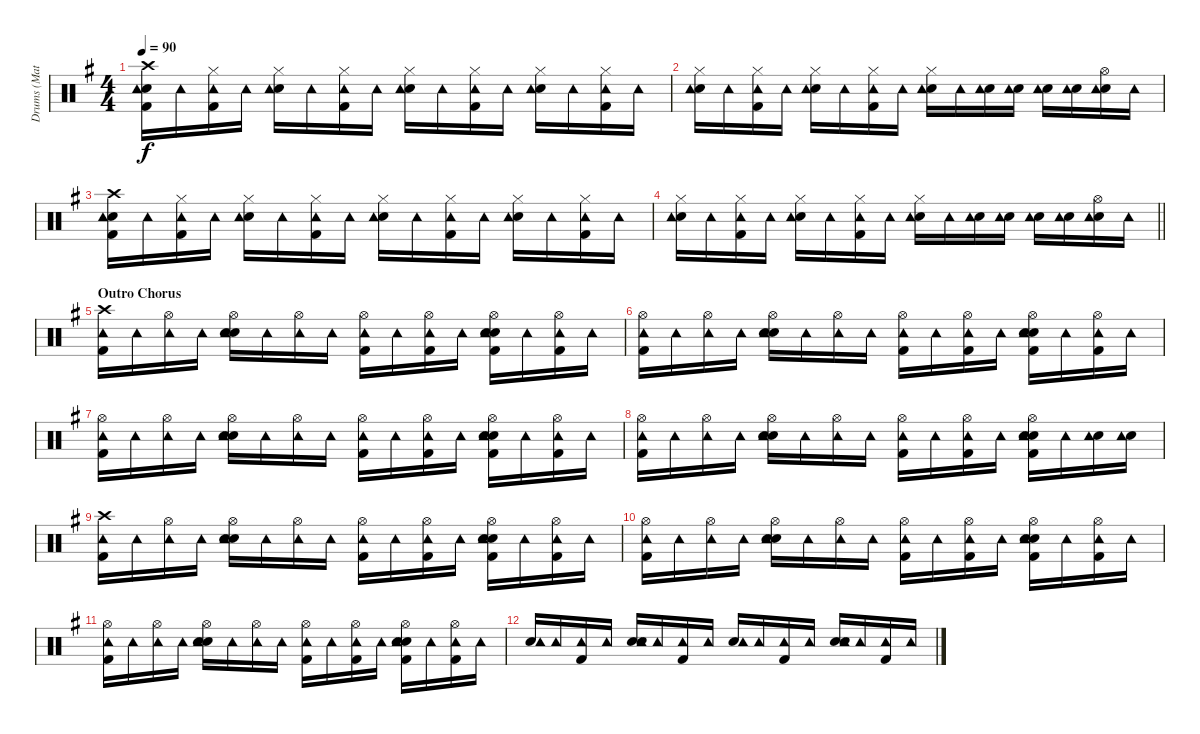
\track ("Drums (Matt)" "Drums (Mat") {instrument percussion}
\staff {score}
\articulation defaults
\ts (4 4)
\tempo 90
\clef neutral
\ks g
("Crash high (hit)" "Snare (hit) 2" "Kick (hit) 2" "Tambourine (hit)").16{dy f} "Tambourine (hit)".16 ("Hi-Hat (closed)" "Kick (hit) 2" "Tambourine (hit)").16 "Tambourine (hit)".16 ("Hi-Hat (closed)" "Snare (hit) 2" "Tambourine (hit)").16 "Tambourine (hit)".16 ("Hi-Hat (closed)" "Kick (hit) 2" "Tambourine (hit)").16 "Tambourine (hit)".16 ("Hi-Hat (closed)" "Snare (hit) 2" "Tambourine (hit)").16 "Tambourine (hit)".16 ("Hi-Hat (closed)" "Kick (hit) 2" "Tambourine (hit)").16 "Tambourine (hit)".16 ("Hi-Hat (closed)" "Snare (hit) 2" "Tambourine (hit)").16 "Tambourine (hit)".16 ("Hi-Hat (closed)" "Kick (hit) 2" "Tambourine (hit)").16 "Tambourine (hit)".16 |
("Hi-Hat (closed)" "Snare (hit) 2" "Tambourine (hit)").16 "Tambourine (hit)".16 ("Hi-Hat (closed)" "Kick (hit) 2" "Tambourine (hit)").16 "Tambourine (hit)".16 ("Hi-Hat (closed)" "Snare (hit) 2" "Tambourine (hit)").16 "Tambourine (hit)".16 ("Hi-Hat (closed)" "Kick (hit) 2" "Tambourine (hit)").16 "Tambourine (hit)".16 ("Hi-Hat (closed)" "Snare (hit) 2" "Tambourine (hit)").16 "Tambourine (hit)".16 ("Snare (hit) 2" "Tambourine (hit)").16 ("Snare (hit) 2" "Tambourine (hit)").16 ("Snare (hit) 2" "Tambourine (hit)").16 ("Snare (hit) 2" "Tambourine (hit)").16 ("Hi-Hat (open)" "Snare (hit) 2" "Tambourine (hit)").16 "Tambourine (hit)".16 |
("Crash high (hit)" "Snare (hit) 2" "Kick (hit) 2" "Tambourine (hit)").16 "Tambourine (hit)".16 ("Hi-Hat (closed)" "Kick (hit) 2" "Tambourine (hit)").16 "Tambourine (hit)".16 ("Hi-Hat (closed)" "Snare (hit) 2" "Tambourine (hit)").16 "Tambourine (hit)".16 ("Hi-Hat (closed)" "Kick (hit) 2" "Tambourine (hit)").16 "Tambourine (hit)".16 ("Hi-Hat (closed)" "Snare (hit) 2" "Tambourine (hit)").16 "Tambourine (hit)".16 ("Hi-Hat (closed)" "Kick (hit) 2" "Tambourine (hit)").16 "Tambourine (hit)".16 ("Hi-Hat (closed)" "Snare (hit) 2" "Tambourine (hit)").16 "Tambourine (hit)".16 ("Hi-Hat (closed)" "Kick (hit) 2" "Tambourine (hit)").16 "Tambourine (hit)".16 |
\barLineRight lightlight
("Hi-Hat (closed)" "Snare (hit) 2" "Tambourine (hit)").16 "Tambourine (hit)".16 ("Hi-Hat (closed)" "Kick (hit) 2" "Tambourine (hit)").16 "Tambourine (hit)".16 ("Hi-Hat (closed)" "Snare (hit) 2" "Tambourine (hit)").16 "Tambourine (hit)".16 ("Hi-Hat (closed)" "Kick (hit) 2" "Tambourine (hit)").16 "Tambourine (hit)".16 ("Hi-Hat (closed)" "Snare (hit) 2" "Tambourine (hit)").16 "Tambourine (hit)".16 ("Snare (hit) 2" "Tambourine (hit)").16 ("Snare (hit) 2" "Tambourine (hit)").16 ("Snare (hit) 2" "Tambourine (hit)").16 ("Snare (hit) 2" "Tambourine (hit)").16 ("Hi-Hat (open)" "Snare (hit) 2" "Tambourine (hit)").16 "Tambourine (hit)".16 |
\section ("" "Outro Chorus")
("Crash high (hit)" "Kick (hit) 2" "Tambourine (hit)").16 "Tambourine (hit)".16 ("Hi-Hat (open)" "Tambourine (hit)").16 "Tambourine (hit)".16 ("Hi-Hat (open)" "Snare (hit) 2" "Tambourine (hit)" "Hand Clap (hit)").16 "Tambourine (hit)".16 ("Hi-Hat (open)" "Tambourine (hit)").16 "Tambourine (hit)".16 ("Hi-Hat (open)" "Kick (hit) 2" "Tambourine (hit)").16 "Tambourine (hit)".16 ("Hi-Hat (open)" "Kick (hit) 2" "Tambourine (hit)").16 "Tambourine (hit)".16 ("Hi-Hat (open)" "Snare (hit) 2" "Kick (hit) 2" "Tambourine (hit)" "Hand Clap (hit)").16 "Tambourine (hit)".16 ("Hi-Hat (open)" "Kick (hit) 2" "Tambourine (hit)").16 "Tambourine (hit)".16 |
("Hi-Hat (open)" "Kick (hit) 2" "Tambourine (hit)").16 "Tambourine (hit)".16 ("Hi-Hat (open)" "Tambourine (hit)").16 "Tambourine (hit)".16 ("Hi-Hat (open)" "Snare (hit) 2" "Tambourine (hit)" "Hand Clap (hit)").16 "Tambourine (hit)".16 ("Hi-Hat (open)" "Tambourine (hit)").16 "Tambourine (hit)".16 ("Hi-Hat (open)" "Kick (hit) 2" "Tambourine (hit)").16 "Tambourine (hit)".16 ("Hi-Hat (open)" "Kick (hit) 2" "Tambourine (hit)").16 "Tambourine (hit)".16 ("Hi-Hat (open)" "Snare (hit) 2" "Kick (hit) 2" "Tambourine (hit)" "Hand Clap (hit)").16 "Tambourine (hit)".16 ("Hi-Hat (open)" "Kick (hit) 2" "Tambourine (hit)").16 "Tambourine (hit)".16 |
("Hi-Hat (open)" "Kick (hit) 2" "Tambourine (hit)").16 "Tambourine (hit)".16 ("Hi-Hat (open)" "Tambourine (hit)").16 "Tambourine (hit)".16 ("Hi-Hat (open)" "Snare (hit) 2" "Tambourine (hit)" "Hand Clap (hit)").16 "Tambourine (hit)".16 ("Hi-Hat (open)" "Tambourine (hit)").16 "Tambourine (hit)".16 ("Hi-Hat (open)" "Kick (hit) 2" "Tambourine (hit)").16 "Tambourine (hit)".16 ("Hi-Hat (open)" "Kick (hit) 2" "Tambourine (hit)").16 "Tambourine (hit)".16 ("Hi-Hat (open)" "Snare (hit) 2" "Kick (hit) 2" "Tambourine (hit)" "Hand Clap (hit)").16 "Tambourine (hit)".16 ("Hi-Hat (open)" "Kick (hit) 2" "Tambourine (hit)").16 "Tambourine (hit)".16 |
("Hi-Hat (open)" "Kick (hit) 2" "Tambourine (hit)").16 "Tambourine (hit)".16 ("Hi-Hat (open)" "Tambourine (hit)").16 "Tambourine (hit)".16 ("Hi-Hat (open)" "Snare (hit) 2" "Tambourine (hit)" "Hand Clap (hit)").16 "Tambourine (hit)".16 ("Hi-Hat (open)" "Tambourine (hit)").16 "Tambourine (hit)".16 ("Hi-Hat (open)" "Kick (hit) 2" "Tambourine (hit)").16 "Tambourine (hit)".16 ("Hi-Hat (open)" "Kick (hit) 2" "Tambourine (hit)").16 "Tambourine (hit)".16 ("Hi-Hat (open)" "Snare (hit) 2" "Kick (hit) 2" "Tambourine (hit)" "Hand Clap (hit)").16 "Tambourine (hit)".16 ("Snare (hit) 2" "Tambourine (hit)").16 ("Snare (hit) 2" "Tambourine (hit)").16 |
("Crash high (hit)" "Kick (hit) 2" "Tambourine (hit)").16 "Tambourine (hit)".16 ("Hi-Hat (open)" "Tambourine (hit)").16 "Tambourine (hit)".16 ("Hi-Hat (open)" "Snare (hit) 2" "Tambourine (hit)" "Hand Clap (hit)").16 "Tambourine (hit)".16 ("Hi-Hat (open)" "Tambourine (hit)").16 "Tambourine (hit)".16 ("Hi-Hat (open)" "Kick (hit) 2" "Tambourine (hit)").16 "Tambourine (hit)".16 ("Hi-Hat (open)" "Kick (hit) 2" "Tambourine (hit)").16 "Tambourine (hit)".16 ("Hi-Hat (open)" "Snare (hit) 2" "Kick (hit) 2" "Tambourine (hit)" "Hand Clap (hit)").16 "Tambourine (hit)".16 ("Hi-Hat (open)" "Kick (hit) 2" "Tambourine (hit)").16 "Tambourine (hit)".16 |
("Hi-Hat (open)" "Kick (hit) 2" "Tambourine (hit)").16 "Tambourine (hit)".16 ("Hi-Hat (open)" "Tambourine (hit)").16 "Tambourine (hit)".16 ("Hi-Hat (open)" "Snare (hit) 2" "Tambourine (hit)" "Hand Clap (hit)").16 "Tambourine (hit)".16 ("Hi-Hat (open)" "Tambourine (hit)").16 "Tambourine (hit)".16 ("Hi-Hat (open)" "Kick (hit) 2" "Tambourine (hit)").16 "Tambourine (hit)".16 ("Hi-Hat (open)" "Kick (hit) 2" "Tambourine (hit)").16 "Tambourine (hit)".16 ("Hi-Hat (open)" "Snare (hit) 2" "Kick (hit) 2" "Tambourine (hit)" "Hand Clap (hit)").16 "Tambourine (hit)".16 ("Hi-Hat (open)" "Kick (hit) 2" "Tambourine (hit)").16 "Tambourine (hit)".16 |
("Hi-Hat (open)" "Kick (hit) 2" "Tambourine (hit)").16 "Tambourine (hit)".16 ("Hi-Hat (open)" "Tambourine (hit)").16 "Tambourine (hit)".16 ("Hi-Hat (open)" "Snare (hit) 2" "Tambourine (hit)" "Hand Clap (hit)").16 "Tambourine (hit)".16 ("Hi-Hat (open)" "Tambourine (hit)").16 "Tambourine (hit)".16 ("Hi-Hat (open)" "Kick (hit) 2" "Tambourine (hit)").16 "Tambourine (hit)".16 ("Hi-Hat (open)" "Kick (hit) 2" "Tambourine (hit)").16 "Tambourine (hit)".16 ("Hi-Hat (open)" "Snare (hit) 2" "Kick (hit) 2" "Tambourine (hit)" "Hand Clap (hit)").16 "Tambourine (hit)".16 ("Hi-Hat (open)" "Kick (hit) 2" "Tambourine (hit)").16 "Tambourine (hit)".16 |
("Snare (hit) 2" "Tambourine (hit)").16 "Tambourine (hit)".16 ("Kick (hit) 2" "Tambourine (hit)").16 "Tambourine (hit)".16 ("Snare (hit) 2" "Tambourine (hit)" "Hand Clap (hit)").16 "Tambourine (hit)".16 ("Kick (hit) 2" "Tambourine (hit)").16 "Tambourine (hit)".16 ("Snare (hit) 2" "Tambourine (hit)").16 "Tambourine (hit)".16 ("Kick (hit) 2" "Tambourine (hit)").16 "Tambourine (hit)".16 ("Snare (hit) 2" "Tambourine (hit)" "Hand Clap (hit)").16 "Tambourine (hit)".16 ("Kick (hit) 2" "Tambourine (hit)").16 "Tambourine (hit)".16
